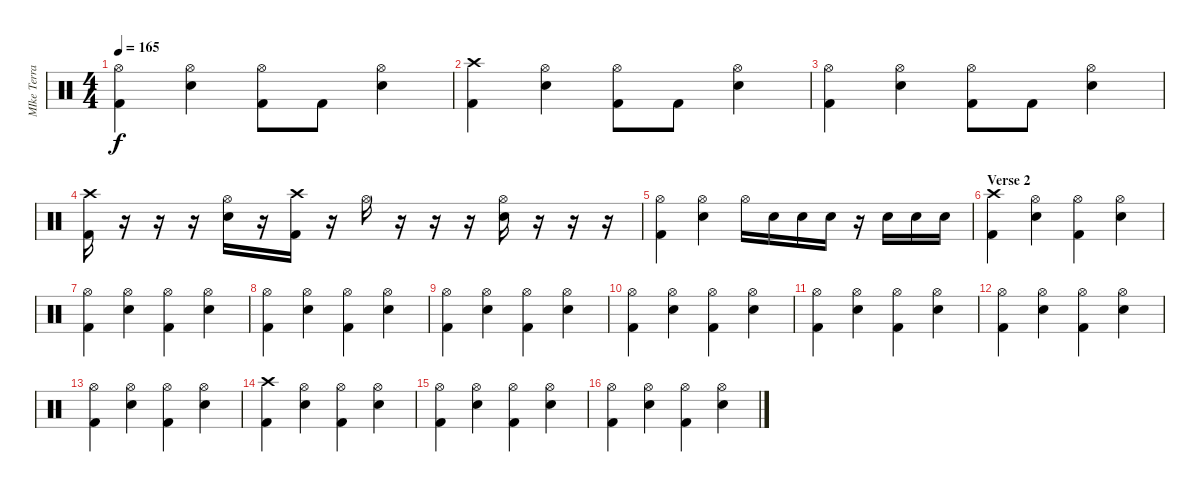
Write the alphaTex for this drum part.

\track ("MIke Terrana - Batteria" "MIke Terra") {instrument percussion}
\staff {score}
\articulation defaults
\ts (4 4)
\tempo 165
\clef neutral
\ks c
("Kick (hit) 2" "Hi-Hat (open)").4{dy f} ("Electric Snare (hit)" "Hi-Hat (open)").4 ("Kick (hit) 2" "Hi-Hat (open)").8 "Kick (hit) 2".8 ("Electric Snare (hit)" "Hi-Hat (open)").4 |
("Kick (hit) 2" "Crash high (hit)").4 ("Electric Snare (hit)" "Hi-Hat (open)").4 ("Kick (hit) 2" "Hi-Hat (open)").8 "Kick (hit) 2".8 ("Electric Snare (hit)" "Hi-Hat (open)").4 |
("Kick (hit) 2" "Hi-Hat (open)").4 ("Electric Snare (hit)" "Hi-Hat (open)").4 ("Kick (hit) 2" "Hi-Hat (open)").8 "Kick (hit) 2".8 ("Electric Snare (hit)" "Hi-Hat (open)").4 |
("Kick (hit) 2" "Crash high (hit)").16 r.16 r.16 r.16 ("Electric Snare (hit)" "Hi-Hat (open)").16 r.16 ("Kick (hit) 2" "Crash high (hit)").16 r.16 "Hi-Hat (open)".16 r.16 r.16 r.16 ("Electric Snare (hit)" "Hi-Hat (open)").16 r.16 r.16 r.16 |
("Kick (hit) 2" "Hi-Hat (open)").4 ("Electric Snare (hit)" "Hi-Hat (open)").4 "Hi-Hat (open)".16 "Electric Snare (hit)".16 "Electric Snare (hit)".16 "Electric Snare (hit)".16 r.16 "Electric Snare (hit)".16 "Electric Snare (hit)".16 "Electric Snare (hit)".16 |
\section ("" "Verse 2")
("Kick (hit) 2" "Crash high (hit)").4 ("Electric Snare (hit)" "Hi-Hat (open)").4 ("Kick (hit) 2" "Hi-Hat (open)").4 ("Electric Snare (hit)" "Hi-Hat (open)").4 |
("Kick (hit) 2" "Hi-Hat (open)").4 ("Electric Snare (hit)" "Hi-Hat (open)").4 ("Kick (hit) 2" "Hi-Hat (open)").4 ("Electric Snare (hit)" "Hi-Hat (open)").4 |
("Kick (hit) 2" "Hi-Hat (open)").4 ("Electric Snare (hit)" "Hi-Hat (open)").4 ("Kick (hit) 2" "Hi-Hat (open)").4 ("Electric Snare (hit)" "Hi-Hat (open)").4 |
("Kick (hit) 2" "Hi-Hat (open)").4 ("Electric Snare (hit)" "Hi-Hat (open)").4 ("Kick (hit) 2" "Hi-Hat (open)").4 ("Electric Snare (hit)" "Hi-Hat (open)").4 |
("Kick (hit) 2" "Hi-Hat (open)").4 ("Electric Snare (hit)" "Hi-Hat (open)").4 ("Kick (hit) 2" "Hi-Hat (open)").4 ("Electric Snare (hit)" "Hi-Hat (open)").4 |
("Kick (hit) 2" "Hi-Hat (open)").4 ("Electric Snare (hit)" "Hi-Hat (open)").4 ("Kick (hit) 2" "Hi-Hat (open)").4 ("Electric Snare (hit)" "Hi-Hat (open)").4 |
("Kick (hit) 2" "Hi-Hat (open)").4 ("Electric Snare (hit)" "Hi-Hat (open)").4 ("Kick (hit) 2" "Hi-Hat (open)").4 ("Electric Snare (hit)" "Hi-Hat (open)").4 |
("Kick (hit) 2" "Hi-Hat (open)").4 ("Electric Snare (hit)" "Hi-Hat (open)").4 ("Kick (hit) 2" "Hi-Hat (open)").4 ("Electric Snare (hit)" "Hi-Hat (open)").4 |
("Kick (hit) 2" "Crash high (hit)").4 ("Electric Snare (hit)" "Hi-Hat (open)").4 ("Kick (hit) 2" "Hi-Hat (open)").4 ("Electric Snare (hit)" "Hi-Hat (open)").4 |
("Kick (hit) 2" "Hi-Hat (open)").4 ("Electric Snare (hit)" "Hi-Hat (open)").4 ("Kick (hit) 2" "Hi-Hat (open)").4 ("Electric Snare (hit)" "Hi-Hat (open)").4 |
("Kick (hit) 2" "Hi-Hat (open)").4 ("Electric Snare (hit)" "Hi-Hat (open)").4 ("Kick (hit) 2" "Hi-Hat (open)").4 ("Electric Snare (hit)" "Hi-Hat (open)").4
